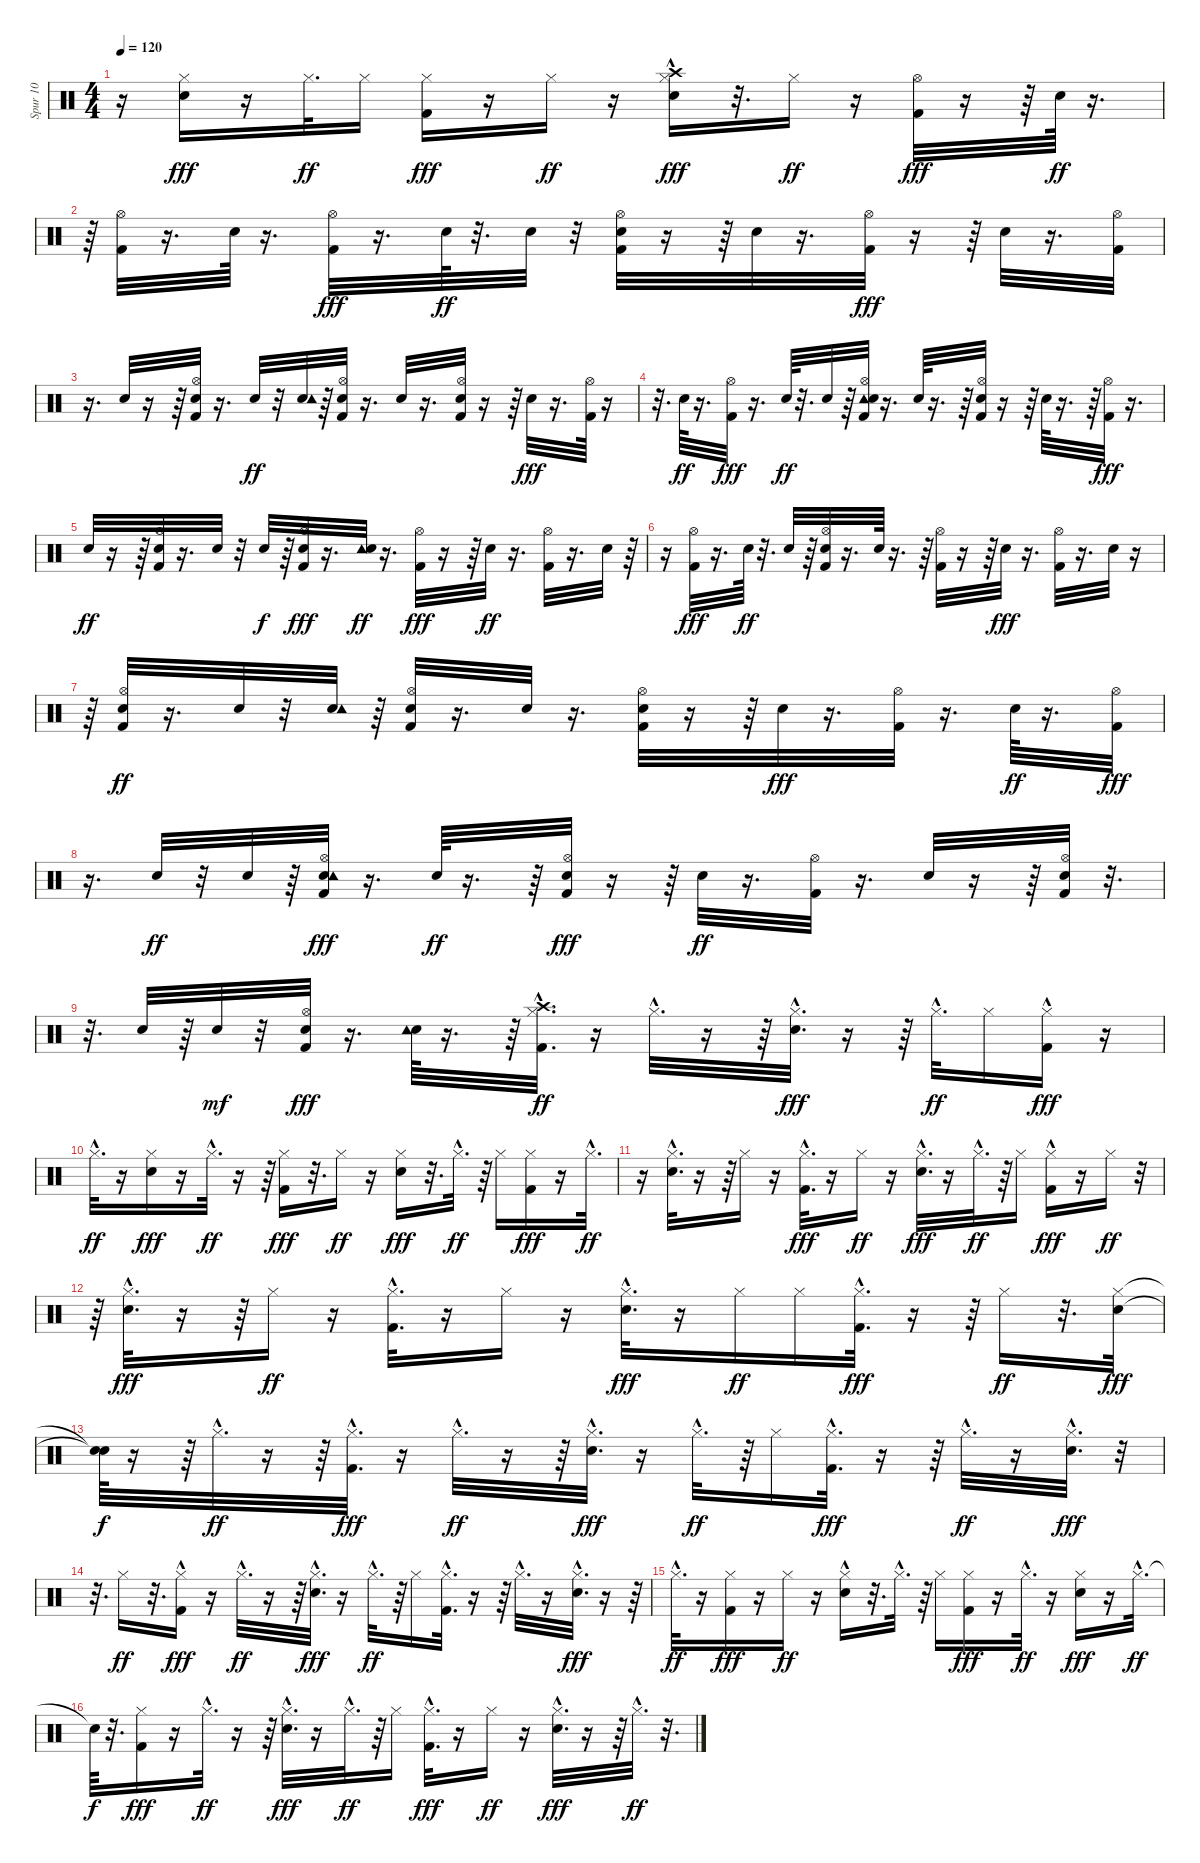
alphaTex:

\track ("Spur 10" "Spur 10") {instrument percussion}
\staff {score}
\articulation defaults
\ts (4 4)
\tempo 120
\clef neutral
\ks c
r.16{dy ff} ("Hi-Hat (closed)" "Snare (hit) 2").16{dy fff} r.16 "Hi-Hat (closed)".32{d dy ff} "Hi-Hat (closed)".16 ("Hi-Hat (closed)" "Kick (hit) 2").16{dy fff} r.16 "Hi-Hat (closed)".16{dy ff} r.16 ("Crash high (hit)"{hac} "Hi-Hat (closed)"{hac} "Snare (hit) 2").16{dy fff} r.32{d} "Hi-Hat (closed)".16{dy ff} r.16 ("Hi-Hat (open)" "Kick (hit) 2").32{dy fff} r.16 r.64 "Electric Snare (hit)".64{dy ff} r.16{d} |
r.64 ("Kick (hit) 2" "Hi-Hat (open)").32 r.16{d} "Electric Snare (hit)".64 r.16{d} ("Hi-Hat (open)" "Kick (hit) 2").32{dy fff} r.16{d} "Electric Snare (hit)".64{dy ff} r.32{d} "Electric Snare (hit)".32 r.32 ("Kick (hit) 2" "Hi-Hat (open)" "Electric Snare (hit)").32 r.16 r.64 "Electric Snare (hit)".32 r.16{d} ("Hi-Hat (open)" "Kick (hit) 2").32{dy fff} r.16 r.64 "Electric Snare (hit)".32 r.16{d} ("Kick (hit) 2" "Hi-Hat (open)").32 |
r.16{d} "Electric Snare (hit)".32 r.16 r.64 ("Electric Snare (hit)" "Kick (hit) 2" "Hi-Hat (open)").32 r.16{d} "Electric Snare (hit)".32{dy ff} r.32 ("Electric Snare (hit)" "Tambourine (hit)").32 r.64 ("Kick (hit) 2" "Hi-Hat (open)" "Electric Snare (hit)").32 r.16{d} "Electric Snare (hit)".32 r.16{d} ("Electric Snare (hit)" "Kick (hit) 2" "Hi-Hat (open)").32 r.16 r.64 "Electric Snare (hit)".32{dy fff} r.16{d} ("Kick (hit) 2" "Hi-Hat (open)").64 r.16 |
r.32{d} "Electric Snare (hit)".64{dy ff} r.16{d} ("Hi-Hat (open)" "Kick (hit) 2").32{dy fff} r.16{d} "Electric Snare (hit)".64{dy ff} r.32{d} "Electric Snare (hit)".32 r.64 ("Hi-Hat (open)" "Kick (hit) 2" "Tambourine (hit)" "Electric Snare (hit)").32 r.16{d} "Electric Snare (hit)".64 r.16{d} r.64 ("Electric Snare (hit)" "Kick (hit) 2" "Hi-Hat (open)").32 r.16 r.64 "Electric Snare (hit)".64 r.16{d} r.64 ("Hi-Hat (open)" "Kick (hit) 2").32{dy fff} r.16{d} |
"Electric Snare (hit)".32{dy ff} r.16 r.64 ("Electric Snare (hit)" "Kick (hit) 2" "Hi-Hat (open)").32 r.16{d} "Electric Snare (hit)".32 r.32 "Electric Snare (hit)".32{dy f} r.64 ("Electric Snare (hit)" "Kick (hit) 2" "Hi-Hat (open)").32{dy fff} r.16{d} ("Tambourine (hit)" "Electric Snare (hit)").32{dy ff} r.16{d} ("Hi-Hat (open)" "Kick (hit) 2").32{dy fff} r.16 r.64 "Electric Snare (hit)".32{dy ff} r.16{d} ("Hi-Hat (open)" "Kick (hit) 2").32 r.16{d} "Electric Snare (hit)".32 r.64 |
r.16 ("Hi-Hat (open)" "Kick (hit) 2").32{dy fff} r.16{d} "Electric Snare (hit)".64{dy ff} r.32{d} "Electric Snare (hit)".32 r.64 ("Electric Snare (hit)" "Kick (hit) 2" "Hi-Hat (open)").32 r.16{d} "Electric Snare (hit)".64 r.16{d} r.64 ("Kick (hit) 2" "Hi-Hat (open)").32 r.16 r.64 "Electric Snare (hit)".32{dy fff} r.16{d} ("Hi-Hat (open)" "Kick (hit) 2").32 r.16{d} "Electric Snare (hit)".32 r.16 |
r.64 ("Hi-Hat (open)" "Kick (hit) 2" "Electric Snare (hit)").32{dy ff} r.16{d} "Electric Snare (hit)".32 r.32 ("Electric Snare (hit)" "Tambourine (hit)").32 r.64 ("Kick (hit) 2" "Hi-Hat (open)" "Electric Snare (hit)").32 r.16{d} "Electric Snare (hit)".32 r.16{d} ("Kick (hit) 2" "Hi-Hat (open)" "Electric Snare (hit)").32 r.16 r.64 "Electric Snare (hit)".32{dy fff} r.16{d} ("Hi-Hat (open)" "Kick (hit) 2").32 r.16{d} "Electric Snare (hit)".64{dy ff} r.16{d} ("Kick (hit) 2" "Hi-Hat (open)").32{dy fff} |
r.16{d} "Electric Snare (hit)".32{dy ff} r.32 "Electric Snare (hit)".32 r.64 ("Electric Snare (hit)" "Tambourine (hit)" "Kick (hit) 2" "Hi-Hat (open)").32{dy fff} r.16{d} "Electric Snare (hit)".64{dy ff} r.16{d} r.64 ("Hi-Hat (open)" "Electric Snare (hit)" "Kick (hit) 2").32{dy fff} r.16 r.64 "Electric Snare (hit)".32{dy ff} r.16{d} ("Kick (hit) 2" "Hi-Hat (open)").32 r.16{d} "Electric Snare (hit)".32 r.16 r.64 ("Kick (hit) 2" "Hi-Hat (open)" "Electric Snare (hit)").32 r.32{d} |
r.32{d} "Electric Snare (hit)".32 r.64 "Electric Snare (hit)".32{dy mf} r.32 ("Electric Snare (hit)" "Kick (hit) 2" "Hi-Hat (open)").32{dy fff} r.16{d} ("Electric Snare (hit)" "Tambourine (hit)").64 r.16{d} r.64 ("Hi-Hat (closed)"{hac} "Kick (hit) 2"{hac} "Crash high (hit)"{hac}).32{d dy ff} r.16 "Hi-Hat (closed)"{hac}.32{d} r.16 r.64 ("Hi-Hat (closed)"{hac} "Snare (hit) 2"{hac}).32{d dy fff} r.16 r.64 "Hi-Hat (closed)"{hac}.32{d dy ff} "Hi-Hat (closed)".16 ("Hi-Hat (closed)"{hac} "Kick (hit) 2").16{dy fff} r.16 |
"Hi-Hat (closed)"{hac}.32{d dy ff} r.16 ("Hi-Hat (closed)" "Snare (hit) 2").16{dy fff} r.16 "Hi-Hat (closed)"{hac}.32{d dy ff} r.16 r.64 ("Hi-Hat (closed)" "Kick (hit) 2").16{dy fff} r.32{d} "Hi-Hat (closed)".16{dy ff} r.16 ("Hi-Hat (closed)" "Snare (hit) 2").16{dy fff} r.32{d} "Hi-Hat (closed)"{hac}.32{d dy ff} r.64 "Hi-Hat (closed)".16 ("Hi-Hat (closed)" "Kick (hit) 2").16{dy fff} r.16 "Hi-Hat (closed)"{hac}.32{d dy ff} |
r.16 ("Snare (hit) 2"{hac} "Hi-Hat (closed)"{hac}).32{d} r.16 r.64 "Hi-Hat (closed)".16 r.16 ("Hi-Hat (closed)"{hac} "Kick (hit) 2"{hac}).32{d dy fff} r.16 "Hi-Hat (closed)".16{dy ff} r.16 ("Hi-Hat (closed)"{hac} "Snare (hit) 2"{hac}).32{d dy fff} r.16 "Hi-Hat (closed)"{hac}.32{d dy ff} r.64 "Hi-Hat (closed)".16 ("Hi-Hat (closed)" "Kick (hit) 2"{hac}).16{dy fff} r.16 "Hi-Hat (closed)".16{dy ff} r.32 |
r.64 ("Hi-Hat (closed)"{hac} "Snare (hit) 2"{hac}).32{d dy fff} r.16 r.64 "Hi-Hat (closed)".16{dy ff} r.16 ("Kick (hit) 2"{hac} "Hi-Hat (closed)"{hac}).32{d} r.16 "Hi-Hat (closed)".16 r.16 ("Hi-Hat (closed)"{hac} "Snare (hit) 2"{hac}).32{d dy fff} r.16 "Hi-Hat (closed)".16{dy ff} "Hi-Hat (closed)".16 ("Hi-Hat (closed)"{hac} "Kick (hit) 2"{hac}).32{d dy fff} r.16 r.64 "Hi-Hat (closed)".16{dy ff} r.32{d} ("Hi-Hat (closed)" "Snare (hit) 2").32{dy fff} |
("Snare (hit)"{t} "Snare (hit)"{t}).64{dy f} r.16 r.64 "Hi-Hat (closed)"{hac}.32{d dy ff} r.16 r.64 ("Hi-Hat (closed)"{hac} "Kick (hit) 2"{hac}).32{d dy fff} r.16 "Hi-Hat (closed)"{hac}.32{d dy ff} r.16 r.64 ("Hi-Hat (closed)"{hac} "Snare (hit) 2"{hac}).32{d dy fff} r.16 "Hi-Hat (closed)"{hac}.32{d dy ff} r.64 "Hi-Hat (closed)".16 ("Hi-Hat (closed)"{hac} "Kick (hit) 2"{hac}).32{d dy fff} r.16 r.64 "Hi-Hat (closed)"{hac}.32{d dy ff} r.16 ("Hi-Hat (closed)"{hac} "Snare (hit) 2"{hac}).32{d dy fff} r.32 |
r.32{d} "Hi-Hat (closed)".16{dy ff} r.32{d} ("Hi-Hat (closed)"{hac} "Kick (hit) 2").16{dy fff} r.16 "Hi-Hat (closed)"{hac}.32{d dy ff} r.16 r.64 ("Hi-Hat (closed)"{hac} "Snare (hit) 2"{hac}).32{d dy fff} r.16 "Hi-Hat (closed)"{hac}.32{d dy ff} r.64 "Hi-Hat (closed)".16 ("Kick (hit) 2"{hac} "Hi-Hat (closed)"{hac}).32{d} r.16 r.64 "Hi-Hat (closed)"{hac}.32{d} r.16 ("Hi-Hat (closed)"{hac} "Snare (hit) 2"{hac}).32{d dy fff} r.16 r.64 |
"Hi-Hat (closed)"{hac}.32{d dy ff} r.16 ("Hi-Hat (closed)" "Kick (hit) 2").16{dy fff} r.16 "Hi-Hat (closed)".16{dy ff} r.16 ("Snare (hit) 2"{hac} "Hi-Hat (closed)").16 r.32{d} "Hi-Hat (closed)"{hac}.32{d} r.64 "Hi-Hat (closed)".16 ("Hi-Hat (closed)" "Kick (hit) 2").16{dy fff} r.16 "Hi-Hat (closed)"{hac}.32{d dy ff} r.16 ("Hi-Hat (closed)" "Snare (hit) 2").16{dy fff} r.16 "Hi-Hat (closed)"{hac}.32{d dy ff} |
"Snare (hit)"{t}.64{dy f} r.32{d} ("Hi-Hat (closed)" "Kick (hit) 2").16{dy fff} r.16 "Hi-Hat (closed)"{hac}.32{d dy ff} r.16 r.64 ("Hi-Hat (closed)"{hac} "Snare (hit) 2"{hac}).32{d dy fff} r.16 "Hi-Hat (closed)"{hac}.32{d dy ff} r.64 "Hi-Hat (closed)".16 ("Hi-Hat (closed)"{hac} "Kick (hit) 2"{hac}).32{d dy fff} r.16 "Hi-Hat (closed)".16{dy ff} r.16 ("Hi-Hat (closed)"{hac} "Snare (hit) 2"{hac}).32{d dy fff} r.16 r.64 "Hi-Hat (closed)"{hac}.32{d dy ff} r.32{d}
